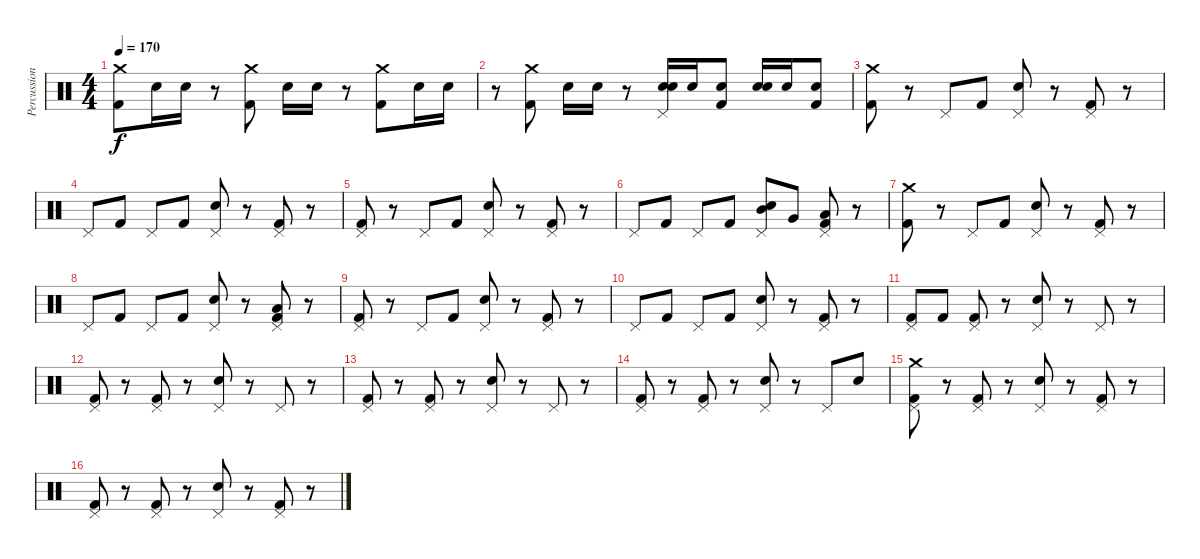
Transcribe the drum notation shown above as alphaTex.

\track ("Percussion" "Percussion") {instrument percussion}
\staff {score}
\articulation defaults
\ts (4 4)
\tempo 170
\clef neutral
\ks c
("Crash medium (hit)" "Kick (hit) 2").8{dy f} "Electric Snare (hit)".16 "Electric Snare (hit)".16 r.8 ("Crash medium (hit)" "Kick (hit) 2").8 "Electric Snare (hit)".16 "Electric Snare (hit)".16 r.8 ("Crash medium (hit)" "Kick (hit) 2").8 "Electric Snare (hit)".16 "Electric Snare (hit)".16 |
r.8 ("Crash medium (hit)" "Kick (hit) 2").8 "Electric Snare (hit)".16 "Electric Snare (hit)".16 r.8 ("Electric Snare (hit)" "Electric Snare (hit)" "Pedal Hi-Hat (hit)").16 "Electric Snare (hit)".16 ("Electric Snare (hit)" "Kick (hit) 2").8 ("Electric Snare (hit)" "Electric Snare (hit)").16 "Electric Snare (hit)".16 ("Electric Snare (hit)" "Kick (hit) 2").8 |
("Crash medium (hit)" "Kick (hit) 2").8 r.8 "Pedal Hi-Hat (hit)".8 "Kick (hit) 2".8 ("Pedal Hi-Hat (hit)" "Electric Snare (hit)").8 r.8 ("Pedal Hi-Hat (hit)" "Kick (hit) 2").8 r.8 |
"Pedal Hi-Hat (hit)".8 "Kick (hit) 2".8 "Pedal Hi-Hat (hit)".8 "Kick (hit) 2".8 ("Pedal Hi-Hat (hit)" "Electric Snare (hit)").8 r.8 ("Pedal Hi-Hat (hit)" "Kick (hit) 2").8 r.8 |
("Pedal Hi-Hat (hit)" "Kick (hit) 2").8 r.8 "Pedal Hi-Hat (hit)".8 "Kick (hit) 2".8 ("Pedal Hi-Hat (hit)" "Electric Snare (hit)").8 r.8 ("Pedal Hi-Hat (hit)" "Kick (hit) 2").8 r.8 |
"Pedal Hi-Hat (hit)".8 "Kick (hit) 2".8 "Pedal Hi-Hat (hit)".8 "Kick (hit) 2".8 ("Pedal Hi-Hat (hit)" "Electric Snare (hit)" "Mid Tom (hit)").8 "Very Low Tom (hit)".8 ("Pedal Hi-Hat (hit)" "Low Floor Tom (hit)" "Kick (hit) 2").8 r.8 |
("Crash medium (hit)" "Kick (hit) 2").8 r.8 "Pedal Hi-Hat (hit)".8 "Kick (hit) 2".8 ("Pedal Hi-Hat (hit)" "Electric Snare (hit)").8 r.8 ("Pedal Hi-Hat (hit)" "Kick (hit) 2").8 r.8 |
"Pedal Hi-Hat (hit)".8 "Kick (hit) 2".8 "Pedal Hi-Hat (hit)".8 "Kick (hit) 2".8 ("Pedal Hi-Hat (hit)" "Electric Snare (hit)").8 r.8 ("Pedal Hi-Hat (hit)" "Low Floor Tom (hit)" "Kick (hit) 2").8 r.8 |
("Pedal Hi-Hat (hit)" "Kick (hit) 2").8 r.8 "Pedal Hi-Hat (hit)".8 "Kick (hit) 2".8 ("Pedal Hi-Hat (hit)" "Electric Snare (hit)").8 r.8 ("Pedal Hi-Hat (hit)" "Kick (hit) 2").8 r.8 |
"Pedal Hi-Hat (hit)".8 "Kick (hit) 2".8 "Pedal Hi-Hat (hit)".8 "Kick (hit) 2".8 ("Pedal Hi-Hat (hit)" "Electric Snare (hit)").8 r.8 ("Pedal Hi-Hat (hit)" "Kick (hit) 2").8 r.8 |
("Pedal Hi-Hat (hit)" "Kick (hit) 2").8 "Kick (hit) 2".8 ("Pedal Hi-Hat (hit)" "Kick (hit) 2").8 r.8 ("Pedal Hi-Hat (hit)" "Electric Snare (hit)").8 r.8 "Pedal Hi-Hat (hit)".8 r.8 |
("Pedal Hi-Hat (hit)" "Kick (hit) 2").8 r.8 ("Pedal Hi-Hat (hit)" "Kick (hit) 2").8 r.8 ("Pedal Hi-Hat (hit)" "Electric Snare (hit)").8 r.8 "Pedal Hi-Hat (hit)".8 r.8 |
("Pedal Hi-Hat (hit)" "Kick (hit) 2").8 r.8 ("Pedal Hi-Hat (hit)" "Kick (hit) 2").8 r.8 ("Pedal Hi-Hat (hit)" "Electric Snare (hit)").8 r.8 "Pedal Hi-Hat (hit)".8 r.8 |
("Pedal Hi-Hat (hit)" "Kick (hit) 2").8 r.8 ("Pedal Hi-Hat (hit)" "Kick (hit) 2").8 r.8 ("Pedal Hi-Hat (hit)" "Electric Snare (hit)").8 r.8 "Pedal Hi-Hat (hit)".8 "Electric Snare (hit)".8 |
("Pedal Hi-Hat (hit)" "Crash medium (hit)" "Kick (hit) 2").8 r.8 ("Pedal Hi-Hat (hit)" "Kick (hit) 2").8 r.8 ("Pedal Hi-Hat (hit)" "Electric Snare (hit)").8 r.8 ("Pedal Hi-Hat (hit)" "Kick (hit) 2").8 r.8 |
("Pedal Hi-Hat (hit)" "Kick (hit) 2").8 r.8 ("Pedal Hi-Hat (hit)" "Kick (hit) 2").8 r.8 ("Pedal Hi-Hat (hit)" "Electric Snare (hit)").8 r.8 ("Pedal Hi-Hat (hit)" "Kick (hit) 2").8 r.8
